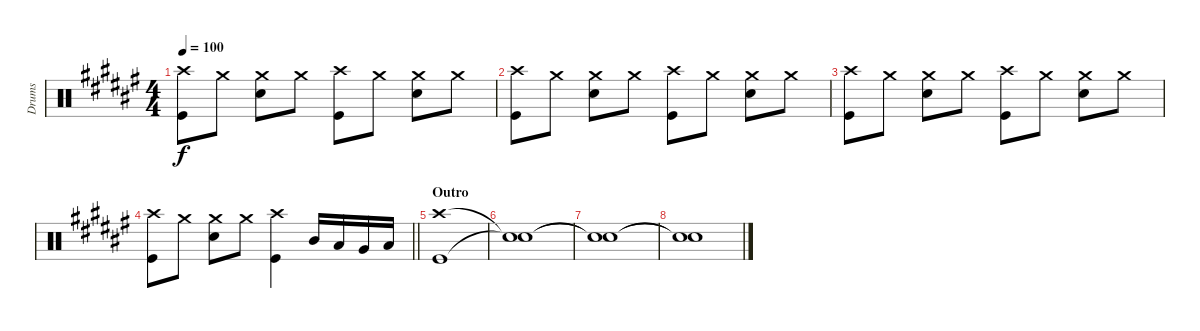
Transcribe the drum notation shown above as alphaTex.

\track ("Drums" "Drums") {instrument percussion}
\staff {score}
\articulation defaults
\ts (4 4)
\tempo 100
\clef neutral
\ks f#
("Crash high (hit)" "Kick (hit)").8{dy f} "Crash medium (hit)".8 ("Crash medium (hit)" "Snare (hit) 2").8 "Crash medium (hit)".8 ("Crash high (hit)" "Kick (hit)").8 "Crash medium (hit)".8 ("Crash medium (hit)" "Snare (hit) 2").8 "Crash medium (hit)".8 |
("Crash high (hit)" "Kick (hit)").8 "Crash medium (hit)".8 ("Crash medium (hit)" "Snare (hit) 2").8 "Crash medium (hit)".8 ("Crash high (hit)" "Kick (hit)").8 "Crash medium (hit)".8 ("Crash medium (hit)" "Snare (hit) 2").8 "Crash medium (hit)".8 |
("Crash high (hit)" "Kick (hit)").8 "Crash medium (hit)".8 ("Crash medium (hit)" "Snare (hit) 2").8 "Crash medium (hit)".8 ("Crash high (hit)" "Kick (hit)").8 "Crash medium (hit)".8 ("Crash medium (hit)" "Snare (hit) 2").8 "Crash medium (hit)".8 |
\barLineRight lightlight
("Crash high (hit)" "Kick (hit)").8 "Crash medium (hit)".8 ("Crash medium (hit)" "Snare (hit) 2").8 "Crash medium (hit)".8 ("Crash high (hit)" "Kick (hit)").4 "Mid Tom (hit)".16 "Low Tom (hit)".16 "Very Low Tom (hit)".16 "Low Floor Tom (hit)".16 |
\section ("" "Outro")
("Crash high (hit)" "Kick (hit)").1{volume 0} |
("Snare (hit)"{t} "Snare (hit)"{t}).1 |
("Snare (hit)"{t} "Snare (hit)"{t}).1 |
("Snare (hit)"{t} "Snare (hit)"{t}).1
